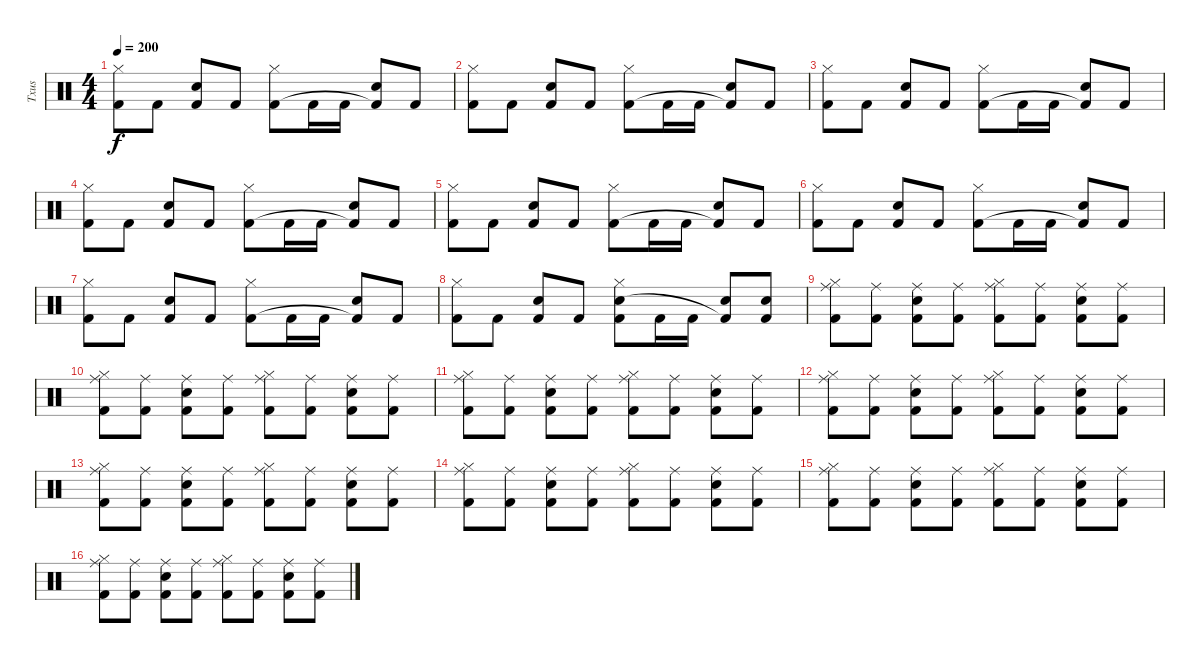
\track ("Txus" "Txus") {instrument percussion}
\staff {score}
\articulation defaults
\ts (4 4)
\tempo 200
\clef neutral
\ks c
("Hi-Hat (closed)" "Kick (hit) 2").8{dy f} "Kick (hit) 2".8 ("Electric Snare (hit)" "Kick (hit) 2").8 "Kick (hit) 2".8 ("Hi-Hat (closed)" "Kick (hit) 2").8 "Kick (hit) 2".16 "Kick (hit) 2".16 ("Electric Snare (hit)" "Kick (hit) 2"{t}).8 "Kick (hit) 2".8 |
("Hi-Hat (closed)" "Kick (hit) 2").8 "Kick (hit) 2".8 ("Electric Snare (hit)" "Kick (hit) 2").8 "Kick (hit) 2".8 ("Hi-Hat (closed)" "Kick (hit) 2").8 "Kick (hit) 2".16 "Kick (hit) 2".16 ("Electric Snare (hit)" "Kick (hit) 2"{t}).8 "Kick (hit) 2".8 |
("Hi-Hat (closed)" "Kick (hit) 2").8 "Kick (hit) 2".8 ("Electric Snare (hit)" "Kick (hit) 2").8 "Kick (hit) 2".8 ("Hi-Hat (closed)" "Kick (hit) 2").8 "Kick (hit) 2".16 "Kick (hit) 2".16 ("Electric Snare (hit)" "Kick (hit) 2"{t}).8 "Kick (hit) 2".8 |
("Hi-Hat (closed)" "Kick (hit) 2").8 "Kick (hit) 2".8 ("Electric Snare (hit)" "Kick (hit) 2").8 "Kick (hit) 2".8 ("Hi-Hat (closed)" "Kick (hit) 2").8 "Kick (hit) 2".16 "Kick (hit) 2".16 ("Electric Snare (hit)" "Kick (hit) 2"{t}).8 "Kick (hit) 2".8 |
("Hi-Hat (closed)" "Kick (hit) 2").8 "Kick (hit) 2".8 ("Electric Snare (hit)" "Kick (hit) 2").8 "Kick (hit) 2".8 ("Hi-Hat (closed)" "Kick (hit) 2").8 "Kick (hit) 2".16 "Kick (hit) 2".16 ("Electric Snare (hit)" "Kick (hit) 2"{t}).8 "Kick (hit) 2".8 |
("Hi-Hat (closed)" "Kick (hit) 2").8 "Kick (hit) 2".8 ("Electric Snare (hit)" "Kick (hit) 2").8 "Kick (hit) 2".8 ("Hi-Hat (closed)" "Kick (hit) 2").8 "Kick (hit) 2".16 "Kick (hit) 2".16 ("Electric Snare (hit)" "Kick (hit) 2"{t}).8 "Kick (hit) 2".8 |
("Hi-Hat (closed)" "Kick (hit) 2").8 "Kick (hit) 2".8 ("Electric Snare (hit)" "Kick (hit) 2").8 "Kick (hit) 2".8 ("Hi-Hat (closed)" "Kick (hit) 2").8 "Kick (hit) 2".16 "Kick (hit) 2".16 ("Electric Snare (hit)" "Kick (hit) 2"{t}).8 "Kick (hit) 2".8 |
("Hi-Hat (closed)" "Kick (hit) 2").8 "Kick (hit) 2".8 ("Electric Snare (hit)" "Kick (hit) 2").8 "Kick (hit) 2".8 ("Hi-Hat (closed)" "Electric Snare (hit)" "Kick (hit) 2").8 "Kick (hit) 2".16 "Kick (hit) 2".16 ("Electric Snare (hit)" "Kick (hit) 2"{t}).8 ("Electric Snare (hit)" "Kick (hit) 2").8 |
("Ride (middle)" "Hi-Hat (closed)" "Kick (hit) 2").8 ("Ride (middle)" "Kick (hit) 2").8 ("Ride (middle)" "Electric Snare (hit)" "Kick (hit) 2").8 ("Ride (middle)" "Kick (hit) 2").8 ("Ride (middle)" "Hi-Hat (closed)" "Kick (hit) 2").8 ("Ride (middle)" "Kick (hit) 2").8 ("Ride (middle)" "Electric Snare (hit)" "Kick (hit) 2").8 ("Ride (middle)" "Kick (hit) 2").8 |
("Ride (middle)" "Hi-Hat (closed)" "Kick (hit) 2").8 ("Ride (middle)" "Kick (hit) 2").8 ("Ride (middle)" "Electric Snare (hit)" "Kick (hit) 2").8 ("Ride (middle)" "Kick (hit) 2").8 ("Ride (middle)" "Hi-Hat (closed)" "Kick (hit) 2").8 ("Ride (middle)" "Kick (hit) 2").8 ("Ride (middle)" "Electric Snare (hit)" "Kick (hit) 2").8 ("Ride (middle)" "Kick (hit) 2").8 |
("Ride (middle)" "Hi-Hat (closed)" "Kick (hit) 2").8 ("Ride (middle)" "Kick (hit) 2").8 ("Ride (middle)" "Electric Snare (hit)" "Kick (hit) 2").8 ("Ride (middle)" "Kick (hit) 2").8 ("Ride (middle)" "Hi-Hat (closed)" "Kick (hit) 2").8 ("Ride (middle)" "Kick (hit) 2").8 ("Ride (middle)" "Electric Snare (hit)" "Kick (hit) 2").8 ("Ride (middle)" "Kick (hit) 2").8 |
("Ride (middle)" "Hi-Hat (closed)" "Kick (hit) 2").8 ("Ride (middle)" "Kick (hit) 2").8 ("Ride (middle)" "Electric Snare (hit)" "Kick (hit) 2").8 ("Ride (middle)" "Kick (hit) 2").8 ("Ride (middle)" "Hi-Hat (closed)" "Kick (hit) 2").8 ("Ride (middle)" "Kick (hit) 2").8 ("Ride (middle)" "Electric Snare (hit)" "Kick (hit) 2").8 ("Ride (middle)" "Kick (hit) 2").8 |
("Ride (middle)" "Hi-Hat (closed)" "Kick (hit) 2").8 ("Ride (middle)" "Kick (hit) 2").8 ("Ride (middle)" "Electric Snare (hit)" "Kick (hit) 2").8 ("Ride (middle)" "Kick (hit) 2").8 ("Ride (middle)" "Hi-Hat (closed)" "Kick (hit) 2").8 ("Ride (middle)" "Kick (hit) 2").8 ("Ride (middle)" "Electric Snare (hit)" "Kick (hit) 2").8 ("Ride (middle)" "Kick (hit) 2").8 |
("Ride (middle)" "Hi-Hat (closed)" "Kick (hit) 2").8 ("Ride (middle)" "Kick (hit) 2").8 ("Ride (middle)" "Electric Snare (hit)" "Kick (hit) 2").8 ("Ride (middle)" "Kick (hit) 2").8 ("Ride (middle)" "Hi-Hat (closed)" "Kick (hit) 2").8 ("Ride (middle)" "Kick (hit) 2").8 ("Ride (middle)" "Electric Snare (hit)" "Kick (hit) 2").8 ("Ride (middle)" "Kick (hit) 2").8 |
("Ride (middle)" "Hi-Hat (closed)" "Kick (hit) 2").8 ("Ride (middle)" "Kick (hit) 2").8 ("Ride (middle)" "Electric Snare (hit)" "Kick (hit) 2").8 ("Ride (middle)" "Kick (hit) 2").8 ("Ride (middle)" "Hi-Hat (closed)" "Kick (hit) 2").8 ("Ride (middle)" "Kick (hit) 2").8 ("Ride (middle)" "Electric Snare (hit)" "Kick (hit) 2").8 ("Ride (middle)" "Kick (hit) 2").8 |
("Ride (middle)" "Hi-Hat (closed)" "Kick (hit) 2").8 ("Ride (middle)" "Kick (hit) 2").8 ("Ride (middle)" "Electric Snare (hit)" "Kick (hit) 2").8 ("Ride (middle)" "Kick (hit) 2").8 ("Ride (middle)" "Hi-Hat (closed)" "Kick (hit) 2").8 ("Ride (middle)" "Kick (hit) 2").8 ("Ride (middle)" "Electric Snare (hit)" "Kick (hit) 2").8 ("Ride (middle)" "Kick (hit) 2").8
